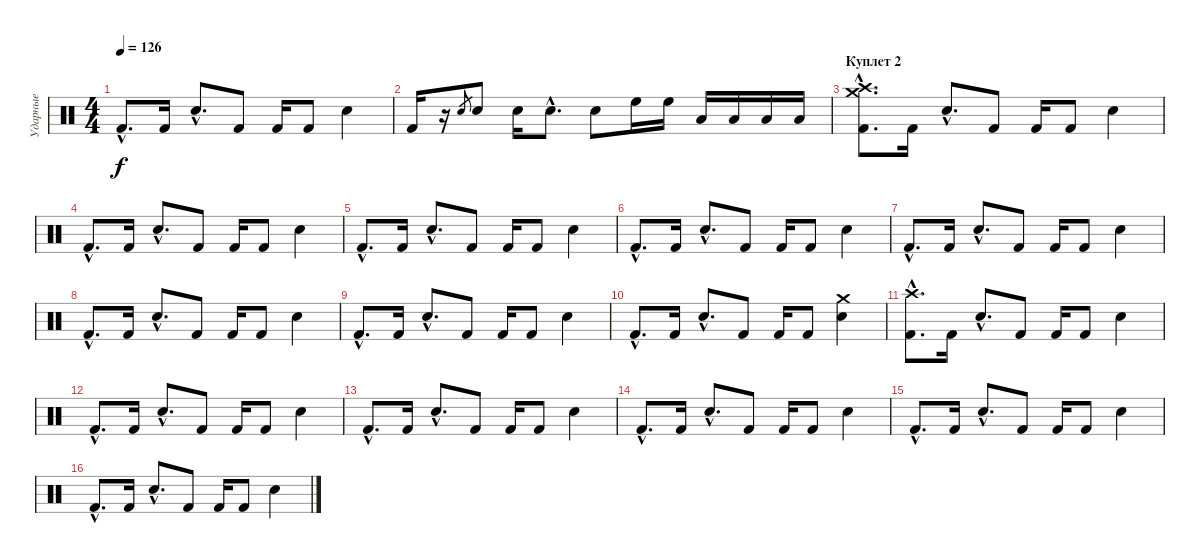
\track ("Ударные" "Ударные") {instrument percussion}
\staff {score}
\articulation defaults
\ts (4 4)
\tempo 126
\clef neutral
\ks c "Kick (hit) 2"{hac}.8{d dy f} "Kick (hit) 2".16 "Snare (hit) 2"{hac}.8{d} "Kick (hit) 2".8 "Kick (hit) 2".16 "Kick (hit) 2".8 "Snare (hit) 2".4
|
"Kick (hit) 2".16 r.16 "Snare (hit) 2".8{gr} "Snare (hit) 2".8 "Snare (hit) 2".16 "Snare (hit) 2"{hac}.8{d} "Snare (hit) 2".8 "High Floor Tom (hit)".16 "High Floor Tom (hit)".16 "Low Tom (hit)".16 "Low Tom (hit)".16 "Low Floor Tom (hit)".16 "Low Floor Tom (hit)".16 |
\section ("" "Куплет 2")
("Kick (hit) 2"{hac} "Crash high (hit)"{hac} "Crash medium (hit)"{hac}).8{d} "Kick (hit) 2".16 "Snare (hit) 2"{hac}.8{d} "Kick (hit) 2".8 "Kick (hit) 2".16 "Kick (hit) 2".8 "Snare (hit) 2".4 |
"Kick (hit) 2"{hac}.8{d} "Kick (hit) 2".16 "Snare (hit) 2"{hac}.8{d} "Kick (hit) 2".8 "Kick (hit) 2".16 "Kick (hit) 2".8 "Snare (hit) 2".4 |
"Kick (hit) 2"{hac}.8{d} "Kick (hit) 2".16 "Snare (hit) 2"{hac}.8{d} "Kick (hit) 2".8 "Kick (hit) 2".16 "Kick (hit) 2".8 "Snare (hit) 2".4 |
"Kick (hit) 2"{hac}.8{d} "Kick (hit) 2".16 "Snare (hit) 2"{hac}.8{d} "Kick (hit) 2".8 "Kick (hit) 2".16 "Kick (hit) 2".8 "Snare (hit) 2".4 |
"Kick (hit) 2"{hac}.8{d} "Kick (hit) 2".16 "Snare (hit) 2"{hac}.8{d} "Kick (hit) 2".8 "Kick (hit) 2".16 "Kick (hit) 2".8 "Snare (hit) 2".4 |
"Kick (hit) 2"{hac}.8{d} "Kick (hit) 2".16 "Snare (hit) 2"{hac}.8{d} "Kick (hit) 2".8 "Kick (hit) 2".16 "Kick (hit) 2".8 "Snare (hit) 2".4 |
"Kick (hit) 2"{hac}.8{d} "Kick (hit) 2".16 "Snare (hit) 2"{hac}.8{d} "Kick (hit) 2".8 "Kick (hit) 2".16 "Kick (hit) 2".8 "Snare (hit) 2".4 |
"Kick (hit) 2"{hac}.8{d} "Kick (hit) 2".16 "Snare (hit) 2"{hac}.8{d} "Kick (hit) 2".8 "Kick (hit) 2".16 "Kick (hit) 2".8 ("Snare (hit) 2" "Crash medium (hit)").4 |
("Kick (hit) 2"{hac} "Crash high (hit)"{hac}).8{d} "Kick (hit) 2".16 "Snare (hit) 2"{hac}.8{d} "Kick (hit) 2".8 "Kick (hit) 2".16 "Kick (hit) 2".8 "Snare (hit) 2".4 |
"Kick (hit) 2"{hac}.8{d} "Kick (hit) 2".16 "Snare (hit) 2"{hac}.8{d} "Kick (hit) 2".8 "Kick (hit) 2".16 "Kick (hit) 2".8 "Snare (hit) 2".4 |
"Kick (hit) 2"{hac}.8{d} "Kick (hit) 2".16 "Snare (hit) 2"{hac}.8{d} "Kick (hit) 2".8 "Kick (hit) 2".16 "Kick (hit) 2".8 "Snare (hit) 2".4 |
"Kick (hit) 2"{hac}.8{d} "Kick (hit) 2".16 "Snare (hit) 2"{hac}.8{d} "Kick (hit) 2".8 "Kick (hit) 2".16 "Kick (hit) 2".8 "Snare (hit) 2".4 |
"Kick (hit) 2"{hac}.8{d} "Kick (hit) 2".16 "Snare (hit) 2"{hac}.8{d} "Kick (hit) 2".8 "Kick (hit) 2".16 "Kick (hit) 2".8 "Snare (hit) 2".4 |
"Kick (hit) 2"{hac}.8{d} "Kick (hit) 2".16 "Snare (hit) 2"{hac}.8{d} "Kick (hit) 2".8 "Kick (hit) 2".16 "Kick (hit) 2".8 "Snare (hit) 2".4
